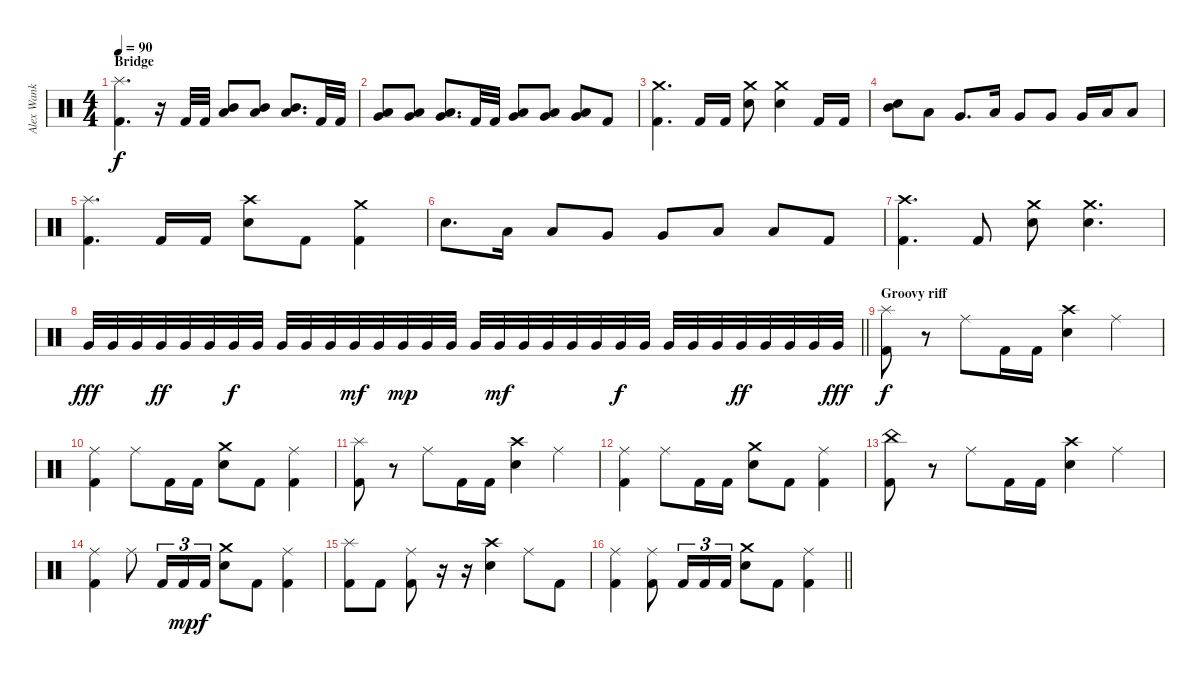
\track ("Alex Wank" "Alex Wank") {instrument percussion}
\staff {score}
\articulation defaults
\ts (4 4)
\section ("" "Bridge")
\tempo 90
\clef neutral
\ks c
("Kick (hit) 2" "Splash (hit)").4{d dy f} r.16 "Kick (hit) 2".32 "Kick (hit) 2".32 ("Mid Tom (hit)" "Low Tom (hit)").8 ("Mid Tom (hit)" "Low Tom (hit)").8 ("Mid Tom (hit)" "Low Tom (hit)").8{d} "Kick (hit) 2".32 "Kick (hit) 2".32 |
("Low Tom (hit)" "Very Low Tom (hit)").8 ("Low Tom (hit)" "Very Low Tom (hit)").8 ("Low Tom (hit)" "Very Low Tom (hit)").8{d} "Kick (hit) 2".32 "Kick (hit) 2".32 ("Very Low Tom (hit)" "Low Floor Tom (hit)").8 ("Very Low Tom (hit)" "Low Floor Tom (hit)").8 ("Very Low Tom (hit)" "Low Floor Tom (hit)").8 "Kick (hit) 2".8 |
("Kick (hit) 2" "Crash medium (hit)").4{d} "Kick (hit) 2".16 "Kick (hit) 2".16 ("Crash medium (hit)" "Snare (hit) 2").8 ("Crash medium (hit)" "Snare (hit) 2").4 "Kick (hit) 2".16 "Kick (hit) 2".16 |
("Mid Tom (hit)" "Snare (hit) 2").8 "Low Tom (hit)".8 "Very Low Tom (hit)".8{d} "Low Tom (hit)".16 "Very Low Tom (hit)".8 "Very Low Tom (hit)".8 "Very Low Tom (hit)".16 "Low Floor Tom (hit)".16 "Low Floor Tom (hit)".8 |
("Kick (hit) 2" "Splash (hit)").4{d} "Kick (hit) 2".16 "Kick (hit) 2".16 ("Crash high (hit)" "Snare (hit) 2").8 "Kick (hit) 2".8 ("Kick (hit) 2" "Crash medium (hit)").4 |
"Snare (hit) 2".8{d} "Low Tom (hit)".16 "Low Tom (hit)".8 "Very Low Tom (hit)".8 "Very Low Tom (hit)".8 "Low Floor Tom (hit)".8 "Low Floor Tom (hit)".8 "Kick (hit) 2".8 |
("Kick (hit) 2" "Crash high (hit)").4{d} "Kick (hit) 2".8 ("Crash medium (hit)" "Snare (hit) 2").8 ("Crash medium (hit)" "Snare (hit) 2").4{d} |
\barLineRight lightlight "Very Low Tom (hit)".32{dy fff} "Very Low Tom (hit)".32 "Very Low Tom (hit)".32 "Very Low Tom (hit)".32{dy ff} "Very Low Tom (hit)".32 "Very Low Tom (hit)".32 "Very Low Tom (hit)".32{dy f} "Very Low Tom (hit)".32 "Very Low Tom (hit)".32 "Very Low Tom (hit)".32 "Very Low Tom (hit)".32 "Very Low Tom (hit)".32{dy mf} "Very Low Tom (hit)".32 "Very Low Tom (hit)".32{dy mp} "Very Low Tom (hit)".32 "Very Low Tom (hit)".32 "Very Low Tom (hit)".32 "Very Low Tom (hit)".32{dy mf} "Very Low Tom (hit)".32 "Very Low Tom (hit)".32 "Very Low Tom (hit)".32 "Very Low Tom (hit)".32 "Very Low Tom (hit)".32{dy f} "Very Low Tom (hit)".32 "Very Low Tom (hit)".32 "Very Low Tom (hit)".32 "Very Low Tom (hit)".32 "Very Low Tom (hit)".32{dy ff} "Very Low Tom (hit)".32 "Very Low Tom (hit)".32 "Very Low Tom (hit)".32 "Very Low Tom (hit)".32{dy fff}
|
\section ("" "Groovy riff")
("Kick (hit) 2" "Splash (hit)").8{dy f} r.8 "Ride (middle)".8 "Kick (hit) 2".16 "Kick (hit) 2".16 ("Crash high (hit)" "Snare (hit) 2").4 "Ride (middle)".4 |
("Kick (hit) 2" "Ride (middle)").4 "Ride (middle)".8 "Kick (hit) 2".16 "Kick (hit) 2".16 ("Crash medium (hit)" "Snare (hit) 2").8 "Kick (hit) 2".8 ("Kick (hit) 2" "Ride (middle)").4 |
("Kick (hit) 2" "Splash (hit)").8 r.8 "Ride (middle)".8 "Kick (hit) 2".16 "Kick (hit) 2".16 ("Crash high (hit)" "Snare (hit) 2").4 "Ride (middle)".4 |
("Kick (hit) 2" "Ride (middle)").4 "Ride (middle)".8 "Kick (hit) 2".16 "Kick (hit) 2".16 ("Crash medium (hit)" "Snare (hit) 2").8 "Kick (hit) 2".8 ("Kick (hit) 2" "Ride (middle)").4 |
("Kick (hit) 2" "China (hit)").8 r.8 "Ride (middle)".8 "Kick (hit) 2".16 "Kick (hit) 2".16 ("Crash high (hit)" "Snare (hit) 2").4 "Ride (middle)".4 |
("Kick (hit) 2" "Ride (middle)").4 "Ride (middle)".8 "Kick (hit) 2".16{tu (3 2)} "Kick (hit) 2".16{tu (3 2) dy mp} "Kick (hit) 2".16{tu (3 2) dy f} ("Crash medium (hit)" "Snare (hit) 2").8 "Kick (hit) 2".8 ("Kick (hit) 2" "Ride (middle)").4 |
("Kick (hit) 2" "Splash (hit)").8 "Kick (hit) 2".8 ("Kick (hit) 2" "Ride (middle)").8 r.16 r.16 ("Crash high (hit)" "Snare (hit) 2").4 "Ride (middle)".8 "Kick (hit) 2".8 |
\barLineRight lightlight
("Kick (hit) 2" "Ride (middle)").4 ("Kick (hit) 2" "Ride (middle)").8 "Kick (hit) 2".16{tu (3 2)} "Kick (hit) 2".16{tu (3 2)} "Kick (hit) 2".16{tu (3 2)} ("Crash medium (hit)" "Snare (hit) 2").8 "Kick (hit) 2".8 ("Kick (hit) 2" "Ride (middle)").4
